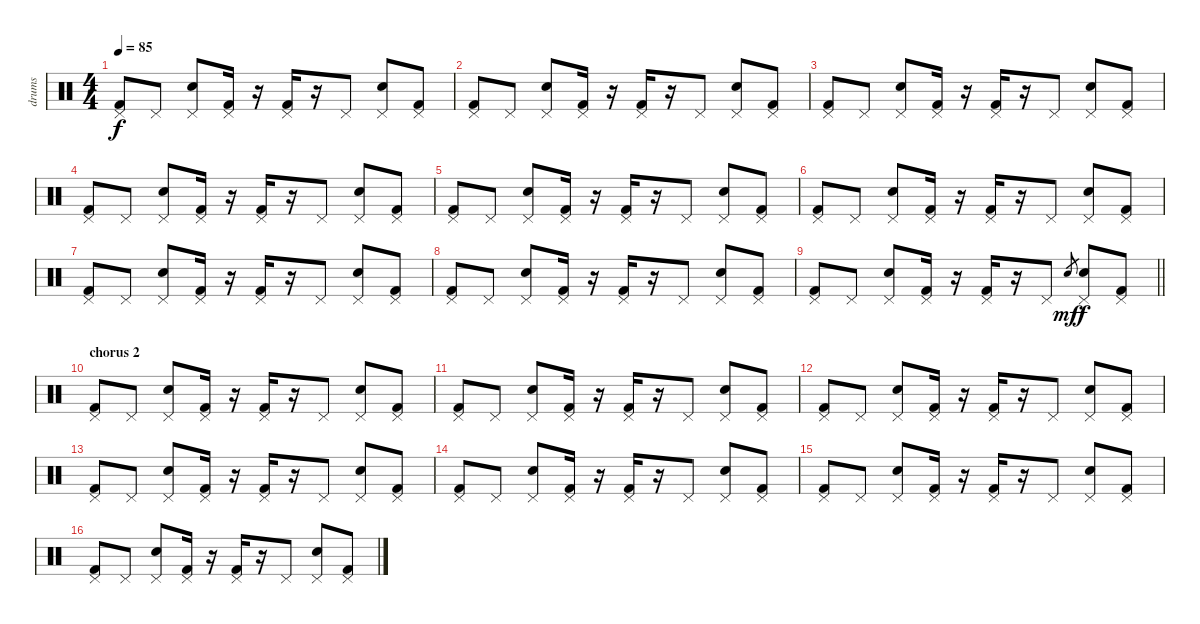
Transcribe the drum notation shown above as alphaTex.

\track ("drums" "drums") {instrument percussion}
\staff {score}
\articulation defaults
\ts (4 4)
\tempo 85
\clef neutral
\ks c
("Kick (hit) 2" "Pedal Hi-Hat (hit)").8{dy f} "Pedal Hi-Hat (hit)".8 ("Electric Snare (hit)" "Pedal Hi-Hat (hit)").8 ("Kick (hit) 2" "Pedal Hi-Hat (hit)").16 r.16 ("Kick (hit) 2" "Pedal Hi-Hat (hit)").16 r.16 "Pedal Hi-Hat (hit)".8 ("Electric Snare (hit)" "Pedal Hi-Hat (hit)").8 ("Kick (hit) 2" "Pedal Hi-Hat (hit)").8 |
("Kick (hit) 2" "Pedal Hi-Hat (hit)").8 "Pedal Hi-Hat (hit)".8 ("Electric Snare (hit)" "Pedal Hi-Hat (hit)").8 ("Kick (hit) 2" "Pedal Hi-Hat (hit)").16 r.16 ("Kick (hit) 2" "Pedal Hi-Hat (hit)").16 r.16 "Pedal Hi-Hat (hit)".8 ("Electric Snare (hit)" "Pedal Hi-Hat (hit)").8 ("Kick (hit) 2" "Pedal Hi-Hat (hit)").8 |
("Kick (hit) 2" "Pedal Hi-Hat (hit)").8 "Pedal Hi-Hat (hit)".8 ("Electric Snare (hit)" "Pedal Hi-Hat (hit)").8 ("Kick (hit) 2" "Pedal Hi-Hat (hit)").16 r.16 ("Kick (hit) 2" "Pedal Hi-Hat (hit)").16 r.16 "Pedal Hi-Hat (hit)".8 ("Electric Snare (hit)" "Pedal Hi-Hat (hit)").8 ("Kick (hit) 2" "Pedal Hi-Hat (hit)").8 |
("Kick (hit) 2" "Pedal Hi-Hat (hit)").8 "Pedal Hi-Hat (hit)".8 ("Electric Snare (hit)" "Pedal Hi-Hat (hit)").8 ("Kick (hit) 2" "Pedal Hi-Hat (hit)").16 r.16 ("Kick (hit) 2" "Pedal Hi-Hat (hit)").16 r.16 "Pedal Hi-Hat (hit)".8 ("Electric Snare (hit)" "Pedal Hi-Hat (hit)").8 ("Kick (hit) 2" "Pedal Hi-Hat (hit)").8 |
("Kick (hit) 2" "Pedal Hi-Hat (hit)").8 "Pedal Hi-Hat (hit)".8 ("Electric Snare (hit)" "Pedal Hi-Hat (hit)").8 ("Kick (hit) 2" "Pedal Hi-Hat (hit)").16 r.16 ("Kick (hit) 2" "Pedal Hi-Hat (hit)").16 r.16 "Pedal Hi-Hat (hit)".8 ("Electric Snare (hit)" "Pedal Hi-Hat (hit)").8 ("Kick (hit) 2" "Pedal Hi-Hat (hit)").8 |
("Kick (hit) 2" "Pedal Hi-Hat (hit)").8 "Pedal Hi-Hat (hit)".8 ("Electric Snare (hit)" "Pedal Hi-Hat (hit)").8 ("Kick (hit) 2" "Pedal Hi-Hat (hit)").16 r.16 ("Kick (hit) 2" "Pedal Hi-Hat (hit)").16 r.16 "Pedal Hi-Hat (hit)".8 ("Electric Snare (hit)" "Pedal Hi-Hat (hit)").8 ("Kick (hit) 2" "Pedal Hi-Hat (hit)").8 |
("Kick (hit) 2" "Pedal Hi-Hat (hit)").8 "Pedal Hi-Hat (hit)".8 ("Electric Snare (hit)" "Pedal Hi-Hat (hit)").8 ("Kick (hit) 2" "Pedal Hi-Hat (hit)").16 r.16 ("Kick (hit) 2" "Pedal Hi-Hat (hit)").16 r.16 "Pedal Hi-Hat (hit)".8 ("Electric Snare (hit)" "Pedal Hi-Hat (hit)").8 ("Kick (hit) 2" "Pedal Hi-Hat (hit)").8 |
("Kick (hit) 2" "Pedal Hi-Hat (hit)").8 "Pedal Hi-Hat (hit)".8 ("Electric Snare (hit)" "Pedal Hi-Hat (hit)").8 ("Kick (hit) 2" "Pedal Hi-Hat (hit)").16 r.16 ("Kick (hit) 2" "Pedal Hi-Hat (hit)").16 r.16 "Pedal Hi-Hat (hit)".8 ("Electric Snare (hit)" "Pedal Hi-Hat (hit)").8 ("Kick (hit) 2" "Pedal Hi-Hat (hit)").8 |
\barLineRight lightlight
("Kick (hit) 2" "Pedal Hi-Hat (hit)").8 "Pedal Hi-Hat (hit)".8 ("Electric Snare (hit)" "Pedal Hi-Hat (hit)").8 ("Kick (hit) 2" "Pedal Hi-Hat (hit)").16 r.16 ("Kick (hit) 2" "Pedal Hi-Hat (hit)").16 r.16 "Pedal Hi-Hat (hit)".8 "Electric Snare (hit)".8{gr dy mf} ("Electric Snare (hit)" "Pedal Hi-Hat (hit)").8{dy f} ("Kick (hit) 2" "Pedal Hi-Hat (hit)").8 |
\section ("" "chorus 2")
("Kick (hit) 2" "Pedal Hi-Hat (hit)").8 "Pedal Hi-Hat (hit)".8 ("Electric Snare (hit)" "Pedal Hi-Hat (hit)").8 ("Kick (hit) 2" "Pedal Hi-Hat (hit)").16 r.16 ("Kick (hit) 2" "Pedal Hi-Hat (hit)").16 r.16 "Pedal Hi-Hat (hit)".8 ("Electric Snare (hit)" "Pedal Hi-Hat (hit)").8 ("Kick (hit) 2" "Pedal Hi-Hat (hit)").8 |
("Kick (hit) 2" "Pedal Hi-Hat (hit)").8 "Pedal Hi-Hat (hit)".8 ("Electric Snare (hit)" "Pedal Hi-Hat (hit)").8 ("Kick (hit) 2" "Pedal Hi-Hat (hit)").16 r.16 ("Kick (hit) 2" "Pedal Hi-Hat (hit)").16 r.16 "Pedal Hi-Hat (hit)".8 ("Electric Snare (hit)" "Pedal Hi-Hat (hit)").8 ("Kick (hit) 2" "Pedal Hi-Hat (hit)").8 |
("Kick (hit) 2" "Pedal Hi-Hat (hit)").8 "Pedal Hi-Hat (hit)".8 ("Electric Snare (hit)" "Pedal Hi-Hat (hit)").8 ("Kick (hit) 2" "Pedal Hi-Hat (hit)").16 r.16 ("Kick (hit) 2" "Pedal Hi-Hat (hit)").16 r.16 "Pedal Hi-Hat (hit)".8 ("Electric Snare (hit)" "Pedal Hi-Hat (hit)").8 ("Kick (hit) 2" "Pedal Hi-Hat (hit)").8 |
("Kick (hit) 2" "Pedal Hi-Hat (hit)").8 "Pedal Hi-Hat (hit)".8 ("Electric Snare (hit)" "Pedal Hi-Hat (hit)").8 ("Kick (hit) 2" "Pedal Hi-Hat (hit)").16 r.16 ("Kick (hit) 2" "Pedal Hi-Hat (hit)").16 r.16 "Pedal Hi-Hat (hit)".8 ("Electric Snare (hit)" "Pedal Hi-Hat (hit)").8 ("Kick (hit) 2" "Pedal Hi-Hat (hit)").8 |
("Kick (hit) 2" "Pedal Hi-Hat (hit)").8 "Pedal Hi-Hat (hit)".8 ("Electric Snare (hit)" "Pedal Hi-Hat (hit)").8 ("Kick (hit) 2" "Pedal Hi-Hat (hit)").16 r.16 ("Kick (hit) 2" "Pedal Hi-Hat (hit)").16 r.16 "Pedal Hi-Hat (hit)".8 ("Electric Snare (hit)" "Pedal Hi-Hat (hit)").8 ("Kick (hit) 2" "Pedal Hi-Hat (hit)").8 |
("Kick (hit) 2" "Pedal Hi-Hat (hit)").8 "Pedal Hi-Hat (hit)".8 ("Electric Snare (hit)" "Pedal Hi-Hat (hit)").8 ("Kick (hit) 2" "Pedal Hi-Hat (hit)").16 r.16 ("Kick (hit) 2" "Pedal Hi-Hat (hit)").16 r.16 "Pedal Hi-Hat (hit)".8 ("Electric Snare (hit)" "Pedal Hi-Hat (hit)").8 ("Kick (hit) 2" "Pedal Hi-Hat (hit)").8 |
("Kick (hit) 2" "Pedal Hi-Hat (hit)").8 "Pedal Hi-Hat (hit)".8 ("Electric Snare (hit)" "Pedal Hi-Hat (hit)").8 ("Kick (hit) 2" "Pedal Hi-Hat (hit)").16 r.16 ("Kick (hit) 2" "Pedal Hi-Hat (hit)").16 r.16 "Pedal Hi-Hat (hit)".8 ("Electric Snare (hit)" "Pedal Hi-Hat (hit)").8 ("Kick (hit) 2" "Pedal Hi-Hat (hit)").8
